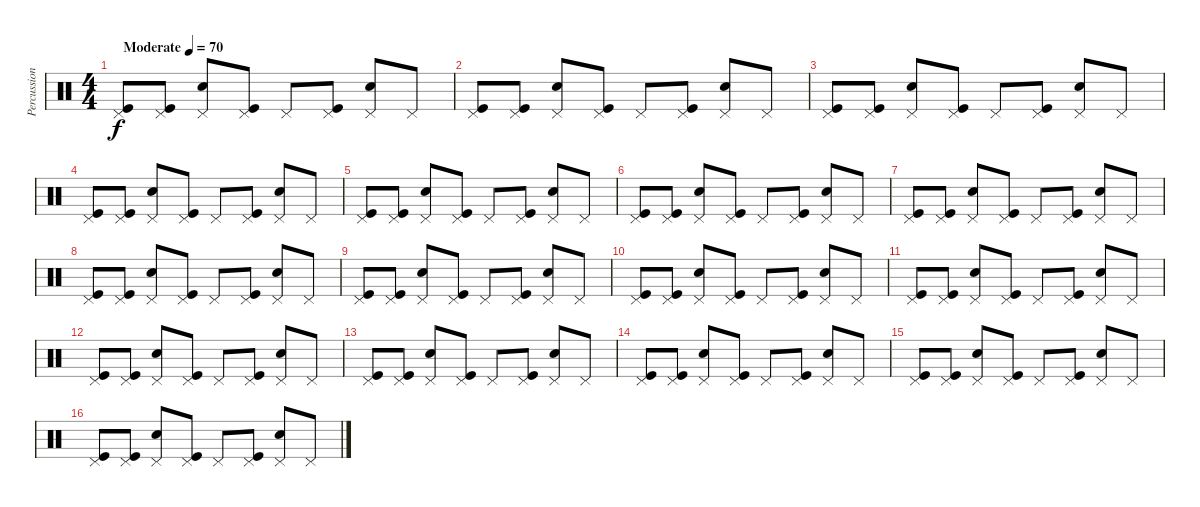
\track ("Percussion" "Percussion") {instrument percussion}
\staff {score}
\articulation defaults
\ts (4 4)
\tempo (70 "Moderate")
\clef neutral
\ks c
("Pedal Hi-Hat (hit)" "Kick (hit)").8{dy f} ("Pedal Hi-Hat (hit)" "Kick (hit)").8 ("Pedal Hi-Hat (hit)" "Snare (hit) 2").8 ("Pedal Hi-Hat (hit)" "Kick (hit)").8 "Pedal Hi-Hat (hit)".8 ("Pedal Hi-Hat (hit)" "Kick (hit)").8 ("Pedal Hi-Hat (hit)" "Snare (hit) 2").8 "Pedal Hi-Hat (hit)".8 |
("Pedal Hi-Hat (hit)" "Kick (hit)").8 ("Pedal Hi-Hat (hit)" "Kick (hit)").8 ("Pedal Hi-Hat (hit)" "Snare (hit) 2").8 ("Pedal Hi-Hat (hit)" "Kick (hit)").8 "Pedal Hi-Hat (hit)".8 ("Pedal Hi-Hat (hit)" "Kick (hit)").8 ("Pedal Hi-Hat (hit)" "Snare (hit) 2").8 "Pedal Hi-Hat (hit)".8 |
("Pedal Hi-Hat (hit)" "Kick (hit)").8 ("Pedal Hi-Hat (hit)" "Kick (hit)").8 ("Pedal Hi-Hat (hit)" "Snare (hit) 2").8 ("Pedal Hi-Hat (hit)" "Kick (hit)").8 "Pedal Hi-Hat (hit)".8 ("Pedal Hi-Hat (hit)" "Kick (hit)").8 ("Pedal Hi-Hat (hit)" "Snare (hit) 2").8 "Pedal Hi-Hat (hit)".8 |
("Pedal Hi-Hat (hit)" "Kick (hit)").8 ("Pedal Hi-Hat (hit)" "Kick (hit)").8 ("Pedal Hi-Hat (hit)" "Snare (hit) 2").8 ("Pedal Hi-Hat (hit)" "Kick (hit)").8 "Pedal Hi-Hat (hit)".8 ("Pedal Hi-Hat (hit)" "Kick (hit)").8 ("Pedal Hi-Hat (hit)" "Snare (hit) 2").8 "Pedal Hi-Hat (hit)".8 |
("Pedal Hi-Hat (hit)" "Kick (hit)").8 ("Pedal Hi-Hat (hit)" "Kick (hit)").8 ("Pedal Hi-Hat (hit)" "Snare (hit) 2").8 ("Pedal Hi-Hat (hit)" "Kick (hit)").8 "Pedal Hi-Hat (hit)".8 ("Pedal Hi-Hat (hit)" "Kick (hit)").8 ("Pedal Hi-Hat (hit)" "Snare (hit) 2").8 "Pedal Hi-Hat (hit)".8 |
("Pedal Hi-Hat (hit)" "Kick (hit)").8 ("Pedal Hi-Hat (hit)" "Kick (hit)").8 ("Pedal Hi-Hat (hit)" "Snare (hit) 2").8 ("Pedal Hi-Hat (hit)" "Kick (hit)").8 "Pedal Hi-Hat (hit)".8 ("Pedal Hi-Hat (hit)" "Kick (hit)").8 ("Pedal Hi-Hat (hit)" "Snare (hit) 2").8 "Pedal Hi-Hat (hit)".8 |
("Pedal Hi-Hat (hit)" "Kick (hit)").8 ("Pedal Hi-Hat (hit)" "Kick (hit)").8 ("Pedal Hi-Hat (hit)" "Snare (hit) 2").8 ("Pedal Hi-Hat (hit)" "Kick (hit)").8 "Pedal Hi-Hat (hit)".8 ("Pedal Hi-Hat (hit)" "Kick (hit)").8 ("Pedal Hi-Hat (hit)" "Snare (hit) 2").8 "Pedal Hi-Hat (hit)".8 |
("Pedal Hi-Hat (hit)" "Kick (hit)").8 ("Pedal Hi-Hat (hit)" "Kick (hit)").8 ("Pedal Hi-Hat (hit)" "Snare (hit) 2").8 ("Pedal Hi-Hat (hit)" "Kick (hit)").8 "Pedal Hi-Hat (hit)".8 ("Pedal Hi-Hat (hit)" "Kick (hit)").8 ("Pedal Hi-Hat (hit)" "Snare (hit) 2").8 "Pedal Hi-Hat (hit)".8 |
("Pedal Hi-Hat (hit)" "Kick (hit)").8 ("Pedal Hi-Hat (hit)" "Kick (hit)").8 ("Pedal Hi-Hat (hit)" "Snare (hit) 2").8 ("Pedal Hi-Hat (hit)" "Kick (hit)").8 "Pedal Hi-Hat (hit)".8 ("Pedal Hi-Hat (hit)" "Kick (hit)").8 ("Pedal Hi-Hat (hit)" "Snare (hit) 2").8 "Pedal Hi-Hat (hit)".8 |
("Pedal Hi-Hat (hit)" "Kick (hit)").8 ("Pedal Hi-Hat (hit)" "Kick (hit)").8 ("Pedal Hi-Hat (hit)" "Snare (hit) 2").8 ("Pedal Hi-Hat (hit)" "Kick (hit)").8 "Pedal Hi-Hat (hit)".8 ("Pedal Hi-Hat (hit)" "Kick (hit)").8 ("Pedal Hi-Hat (hit)" "Snare (hit) 2").8 "Pedal Hi-Hat (hit)".8 |
("Pedal Hi-Hat (hit)" "Kick (hit)").8 ("Pedal Hi-Hat (hit)" "Kick (hit)").8{txt ""} ("Pedal Hi-Hat (hit)" "Snare (hit) 2").8 ("Pedal Hi-Hat (hit)" "Kick (hit)").8 "Pedal Hi-Hat (hit)".8 ("Pedal Hi-Hat (hit)" "Kick (hit)").8 ("Pedal Hi-Hat (hit)" "Snare (hit) 2").8 "Pedal Hi-Hat (hit)".8 |
("Pedal Hi-Hat (hit)" "Kick (hit)").8 ("Pedal Hi-Hat (hit)" "Kick (hit)").8 ("Pedal Hi-Hat (hit)" "Snare (hit) 2").8 ("Pedal Hi-Hat (hit)" "Kick (hit)").8 "Pedal Hi-Hat (hit)".8 ("Pedal Hi-Hat (hit)" "Kick (hit)").8 ("Pedal Hi-Hat (hit)" "Snare (hit) 2").8 "Pedal Hi-Hat (hit)".8 |
("Pedal Hi-Hat (hit)" "Kick (hit)").8 ("Pedal Hi-Hat (hit)" "Kick (hit)").8 ("Pedal Hi-Hat (hit)" "Snare (hit) 2").8 ("Pedal Hi-Hat (hit)" "Kick (hit)").8 "Pedal Hi-Hat (hit)".8 ("Pedal Hi-Hat (hit)" "Kick (hit)").8 ("Pedal Hi-Hat (hit)" "Snare (hit) 2").8 "Pedal Hi-Hat (hit)".8 |
("Pedal Hi-Hat (hit)" "Kick (hit)").8 ("Pedal Hi-Hat (hit)" "Kick (hit)").8 ("Pedal Hi-Hat (hit)" "Snare (hit) 2").8 ("Pedal Hi-Hat (hit)" "Kick (hit)").8 "Pedal Hi-Hat (hit)".8 ("Pedal Hi-Hat (hit)" "Kick (hit)").8 ("Pedal Hi-Hat (hit)" "Snare (hit) 2").8 "Pedal Hi-Hat (hit)".8 |
("Pedal Hi-Hat (hit)" "Kick (hit)").8 ("Pedal Hi-Hat (hit)" "Kick (hit)").8 ("Pedal Hi-Hat (hit)" "Snare (hit) 2").8 ("Pedal Hi-Hat (hit)" "Kick (hit)").8 "Pedal Hi-Hat (hit)".8 ("Pedal Hi-Hat (hit)" "Kick (hit)").8 ("Pedal Hi-Hat (hit)" "Snare (hit) 2").8 "Pedal Hi-Hat (hit)".8 |
("Pedal Hi-Hat (hit)" "Kick (hit)").8 ("Pedal Hi-Hat (hit)" "Kick (hit)").8 ("Pedal Hi-Hat (hit)" "Snare (hit) 2").8 ("Pedal Hi-Hat (hit)" "Kick (hit)").8 "Pedal Hi-Hat (hit)".8 ("Pedal Hi-Hat (hit)" "Kick (hit)").8 ("Pedal Hi-Hat (hit)" "Snare (hit) 2").8 "Pedal Hi-Hat (hit)".8
